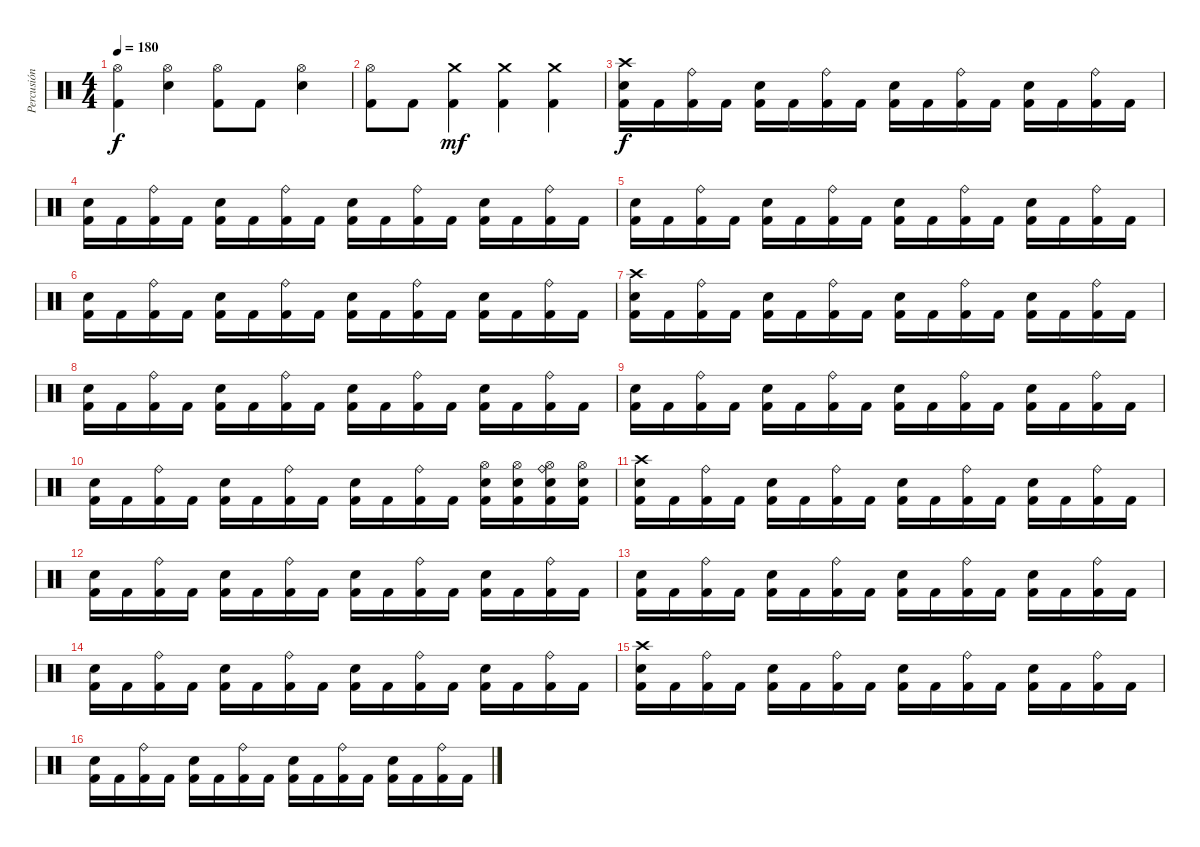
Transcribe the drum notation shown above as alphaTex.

\track ("Percusión" "Percusión") {instrument percussion}
\staff {score}
\articulation defaults
\ts (4 4)
\tempo 180
\clef neutral
\ks c
("Hi-Hat (open)" "Kick (hit) 2").4{dy f} ("Hi-Hat (open)" "Electric Snare (hit)").4 ("Hi-Hat (open)" "Kick (hit) 2").8 "Kick (hit) 2".8 ("Hi-Hat (open)" "Electric Snare (hit)").4 |
("Hi-Hat (open)" "Kick (hit) 2").8 "Kick (hit) 2".8 ("Crash medium (hit)" "Kick (hit) 2").4{dy mf} ("Crash medium (hit)" "Kick (hit) 2").4 ("Crash medium (hit)" "Kick (hit) 2").4 |
("Snare (hit) 2" "Crash high (hit)" "Kick (hit) 2").16{dy f} "Kick (hit) 2".16 ("Ride (bell)" "Kick (hit) 2").16 "Kick (hit) 2".16 ("Snare (hit) 2" "Kick (hit) 2").16 "Kick (hit) 2".16 ("Ride (bell)" "Kick (hit) 2").16 "Kick (hit) 2".16 ("Snare (hit) 2" "Kick (hit) 2").16 "Kick (hit) 2".16 ("Ride (bell)" "Kick (hit) 2").16 "Kick (hit) 2".16 ("Snare (hit) 2" "Kick (hit) 2").16 "Kick (hit) 2".16 ("Ride (bell)" "Kick (hit) 2").16 "Kick (hit) 2".16 |
("Snare (hit) 2" "Kick (hit) 2").16 "Kick (hit) 2".16 ("Ride (bell)" "Kick (hit) 2").16 "Kick (hit) 2".16 ("Snare (hit) 2" "Kick (hit) 2").16 "Kick (hit) 2".16 ("Ride (bell)" "Kick (hit) 2").16 "Kick (hit) 2".16 ("Snare (hit) 2" "Kick (hit) 2").16 "Kick (hit) 2".16 ("Ride (bell)" "Kick (hit) 2").16 "Kick (hit) 2".16 ("Snare (hit) 2" "Kick (hit) 2").16 "Kick (hit) 2".16 ("Ride (bell)" "Kick (hit) 2").16 "Kick (hit) 2".16 |
("Snare (hit) 2" "Kick (hit) 2").16 "Kick (hit) 2".16 ("Ride (bell)" "Kick (hit) 2").16 "Kick (hit) 2".16 ("Snare (hit) 2" "Kick (hit) 2").16 "Kick (hit) 2".16 ("Ride (bell)" "Kick (hit) 2").16 "Kick (hit) 2".16 ("Snare (hit) 2" "Kick (hit) 2").16 "Kick (hit) 2".16 ("Ride (bell)" "Kick (hit) 2").16 "Kick (hit) 2".16 ("Snare (hit) 2" "Kick (hit) 2").16 "Kick (hit) 2".16 ("Ride (bell)" "Kick (hit) 2").16 "Kick (hit) 2".16 |
("Snare (hit) 2" "Kick (hit) 2").16 "Kick (hit) 2".16 ("Ride (bell)" "Kick (hit) 2").16 "Kick (hit) 2".16 ("Snare (hit) 2" "Kick (hit) 2").16 "Kick (hit) 2".16 ("Ride (bell)" "Kick (hit) 2").16 "Kick (hit) 2".16 ("Snare (hit) 2" "Kick (hit) 2").16 "Kick (hit) 2".16 ("Ride (bell)" "Kick (hit) 2").16 "Kick (hit) 2".16 ("Snare (hit) 2" "Kick (hit) 2").16 "Kick (hit) 2".16 ("Ride (bell)" "Kick (hit) 2").16 "Kick (hit) 2".16 |
("Snare (hit) 2" "Crash high (hit)" "Kick (hit) 2").16 "Kick (hit) 2".16 ("Ride (bell)" "Kick (hit) 2").16 "Kick (hit) 2".16 ("Snare (hit) 2" "Kick (hit) 2").16 "Kick (hit) 2".16 ("Ride (bell)" "Kick (hit) 2").16 "Kick (hit) 2".16 ("Snare (hit) 2" "Kick (hit) 2").16 "Kick (hit) 2".16 ("Ride (bell)" "Kick (hit) 2").16 "Kick (hit) 2".16 ("Snare (hit) 2" "Kick (hit) 2").16 "Kick (hit) 2".16 ("Ride (bell)" "Kick (hit) 2").16 "Kick (hit) 2".16 |
("Snare (hit) 2" "Kick (hit) 2").16 "Kick (hit) 2".16 ("Ride (bell)" "Kick (hit) 2").16 "Kick (hit) 2".16 ("Snare (hit) 2" "Kick (hit) 2").16 "Kick (hit) 2".16 ("Ride (bell)" "Kick (hit) 2").16 "Kick (hit) 2".16 ("Snare (hit) 2" "Kick (hit) 2").16 "Kick (hit) 2".16 ("Ride (bell)" "Kick (hit) 2").16 "Kick (hit) 2".16 ("Snare (hit) 2" "Kick (hit) 2").16 "Kick (hit) 2".16 ("Ride (bell)" "Kick (hit) 2").16 "Kick (hit) 2".16 |
("Snare (hit) 2" "Kick (hit) 2").16 "Kick (hit) 2".16 ("Ride (bell)" "Kick (hit) 2").16 "Kick (hit) 2".16 ("Snare (hit) 2" "Kick (hit) 2").16 "Kick (hit) 2".16 ("Ride (bell)" "Kick (hit) 2").16 "Kick (hit) 2".16 ("Snare (hit) 2" "Kick (hit) 2").16 "Kick (hit) 2".16 ("Ride (bell)" "Kick (hit) 2").16 "Kick (hit) 2".16 ("Snare (hit) 2" "Kick (hit) 2").16 "Kick (hit) 2".16 ("Ride (bell)" "Kick (hit) 2").16 "Kick (hit) 2".16 |
("Snare (hit) 2" "Kick (hit) 2").16 "Kick (hit) 2".16 ("Ride (bell)" "Kick (hit) 2").16 "Kick (hit) 2".16 ("Snare (hit) 2" "Kick (hit) 2").16 "Kick (hit) 2".16 ("Ride (bell)" "Kick (hit) 2").16 "Kick (hit) 2".16 ("Snare (hit) 2" "Kick (hit) 2").16 "Kick (hit) 2".16 ("Ride (bell)" "Kick (hit) 2").16 "Kick (hit) 2".16 ("Snare (hit) 2" "Hi-Hat (open)" "Kick (hit) 2").16 ("Snare (hit) 2" "Hi-Hat (open)" "Kick (hit) 2").16 ("Snare (hit) 2" "Ride (bell)" "Hi-Hat (open)" "Kick (hit) 2").16 ("Snare (hit) 2" "Hi-Hat (open)" "Kick (hit) 2").16 |
("Snare (hit) 2" "Crash high (hit)" "Kick (hit) 2").16 "Kick (hit) 2".16 ("Ride (bell)" "Kick (hit) 2").16 "Kick (hit) 2".16 ("Snare (hit) 2" "Kick (hit) 2").16 "Kick (hit) 2".16 ("Ride (bell)" "Kick (hit) 2").16 "Kick (hit) 2".16 ("Snare (hit) 2" "Kick (hit) 2").16 "Kick (hit) 2".16 ("Ride (bell)" "Kick (hit) 2").16 "Kick (hit) 2".16 ("Snare (hit) 2" "Kick (hit) 2").16 "Kick (hit) 2".16 ("Ride (bell)" "Kick (hit) 2").16 "Kick (hit) 2".16 |
("Snare (hit) 2" "Kick (hit) 2").16 "Kick (hit) 2".16 ("Ride (bell)" "Kick (hit) 2").16 "Kick (hit) 2".16 ("Snare (hit) 2" "Kick (hit) 2").16 "Kick (hit) 2".16 ("Ride (bell)" "Kick (hit) 2").16 "Kick (hit) 2".16 ("Snare (hit) 2" "Kick (hit) 2").16 "Kick (hit) 2".16 ("Ride (bell)" "Kick (hit) 2").16 "Kick (hit) 2".16 ("Snare (hit) 2" "Kick (hit) 2").16 "Kick (hit) 2".16 ("Ride (bell)" "Kick (hit) 2").16 "Kick (hit) 2".16 |
("Snare (hit) 2" "Kick (hit) 2").16 "Kick (hit) 2".16 ("Ride (bell)" "Kick (hit) 2").16 "Kick (hit) 2".16 ("Snare (hit) 2" "Kick (hit) 2").16 "Kick (hit) 2".16 ("Ride (bell)" "Kick (hit) 2").16 "Kick (hit) 2".16 ("Snare (hit) 2" "Kick (hit) 2").16 "Kick (hit) 2".16 ("Ride (bell)" "Kick (hit) 2").16 "Kick (hit) 2".16 ("Snare (hit) 2" "Kick (hit) 2").16 "Kick (hit) 2".16 ("Ride (bell)" "Kick (hit) 2").16 "Kick (hit) 2".16 |
("Snare (hit) 2" "Kick (hit) 2").16 "Kick (hit) 2".16 ("Ride (bell)" "Kick (hit) 2").16 "Kick (hit) 2".16 ("Snare (hit) 2" "Kick (hit) 2").16 "Kick (hit) 2".16 ("Ride (bell)" "Kick (hit) 2").16 "Kick (hit) 2".16 ("Snare (hit) 2" "Kick (hit) 2").16 "Kick (hit) 2".16 ("Ride (bell)" "Kick (hit) 2").16 "Kick (hit) 2".16 ("Snare (hit) 2" "Kick (hit) 2").16 "Kick (hit) 2".16 ("Ride (bell)" "Kick (hit) 2").16 "Kick (hit) 2".16 |
("Snare (hit) 2" "Crash high (hit)" "Kick (hit) 2").16 "Kick (hit) 2".16 ("Ride (bell)" "Kick (hit) 2").16 "Kick (hit) 2".16 ("Snare (hit) 2" "Kick (hit) 2").16 "Kick (hit) 2".16 ("Ride (bell)" "Kick (hit) 2").16 "Kick (hit) 2".16 ("Snare (hit) 2" "Kick (hit) 2").16 "Kick (hit) 2".16 ("Ride (bell)" "Kick (hit) 2").16 "Kick (hit) 2".16 ("Snare (hit) 2" "Kick (hit) 2").16 "Kick (hit) 2".16 ("Ride (bell)" "Kick (hit) 2").16 "Kick (hit) 2".16 |
("Snare (hit) 2" "Kick (hit) 2").16 "Kick (hit) 2".16 ("Ride (bell)" "Kick (hit) 2").16 "Kick (hit) 2".16 ("Snare (hit) 2" "Kick (hit) 2").16 "Kick (hit) 2".16 ("Ride (bell)" "Kick (hit) 2").16 "Kick (hit) 2".16 ("Snare (hit) 2" "Kick (hit) 2").16 "Kick (hit) 2".16 ("Ride (bell)" "Kick (hit) 2").16 "Kick (hit) 2".16 ("Snare (hit) 2" "Kick (hit) 2").16 "Kick (hit) 2".16 ("Ride (bell)" "Kick (hit) 2").16 "Kick (hit) 2".16
